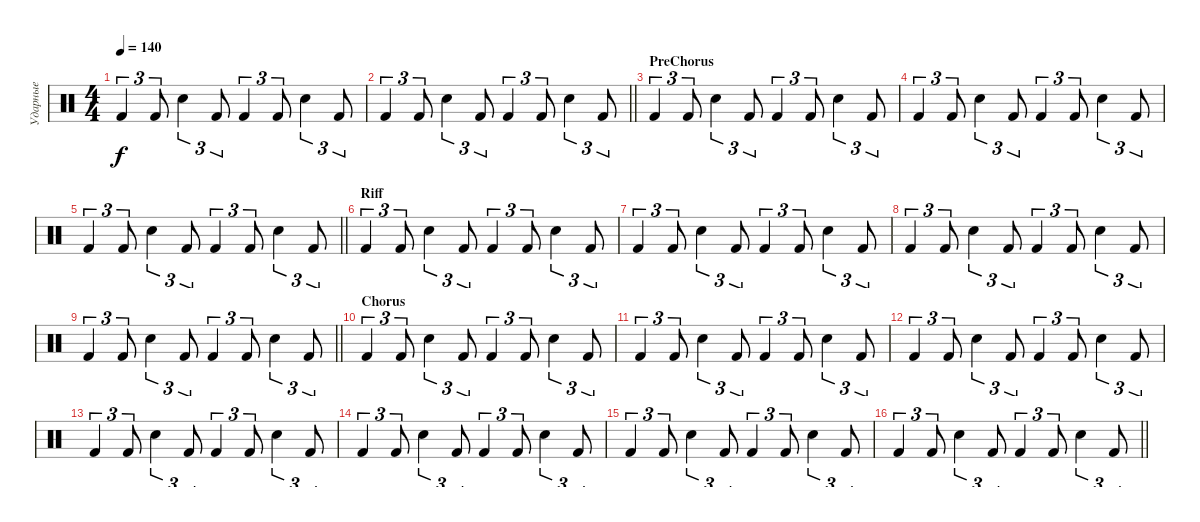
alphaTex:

\track ("Ударные" "Ударные") {instrument percussion}
\staff {score}
\articulation defaults
\ts (4 4)
\tempo 140
\clef neutral
\ks c "Kick (hit) 2".4{tu (3 2) dy f} "Kick (hit) 2".8{tu (3 2)} "Snare (hit) 2".4{tu (3 2)} "Kick (hit) 2".8{tu (3 2)} "Kick (hit) 2".4{tu (3 2)} "Kick (hit) 2".8{tu (3 2)} "Snare (hit) 2".4{tu (3 2)} "Kick (hit) 2".8{tu (3 2)}
|
\barLineRight lightlight "Kick (hit) 2".4{tu (3 2)} "Kick (hit) 2".8{tu (3 2)} "Snare (hit) 2".4{tu (3 2)} "Kick (hit) 2".8{tu (3 2)} "Kick (hit) 2".4{tu (3 2)} "Kick (hit) 2".8{tu (3 2)} "Snare (hit) 2".4{tu (3 2)} "Kick (hit) 2".8{tu (3 2)}
|
\section ("" "PreChorus")
"Kick (hit) 2".4{tu (3 2)} "Kick (hit) 2".8{tu (3 2)} "Snare (hit) 2".4{tu (3 2)} "Kick (hit) 2".8{tu (3 2)} "Kick (hit) 2".4{tu (3 2)} "Kick (hit) 2".8{tu (3 2)} "Snare (hit) 2".4{tu (3 2)} "Kick (hit) 2".8{tu (3 2)} |
"Kick (hit) 2".4{tu (3 2)} "Kick (hit) 2".8{tu (3 2)} "Snare (hit) 2".4{tu (3 2)} "Kick (hit) 2".8{tu (3 2)} "Kick (hit) 2".4{tu (3 2)} "Kick (hit) 2".8{tu (3 2)} "Snare (hit) 2".4{tu (3 2)} "Kick (hit) 2".8{tu (3 2)} |
\barLineRight lightlight "Kick (hit) 2".4{tu (3 2)} "Kick (hit) 2".8{tu (3 2)} "Snare (hit) 2".4{tu (3 2)} "Kick (hit) 2".8{tu (3 2)} "Kick (hit) 2".4{tu (3 2)} "Kick (hit) 2".8{tu (3 2)} "Snare (hit) 2".4{tu (3 2)} "Kick (hit) 2".8{tu (3 2)}
|
\section ("" "Riff")
"Kick (hit) 2".4{tu (3 2)} "Kick (hit) 2".8{tu (3 2)} "Snare (hit) 2".4{tu (3 2)} "Kick (hit) 2".8{tu (3 2)} "Kick (hit) 2".4{tu (3 2)} "Kick (hit) 2".8{tu (3 2)} "Snare (hit) 2".4{tu (3 2)} "Kick (hit) 2".8{tu (3 2)} |
"Kick (hit) 2".4{tu (3 2)} "Kick (hit) 2".8{tu (3 2)} "Snare (hit) 2".4{tu (3 2)} "Kick (hit) 2".8{tu (3 2)} "Kick (hit) 2".4{tu (3 2)} "Kick (hit) 2".8{tu (3 2)} "Snare (hit) 2".4{tu (3 2)} "Kick (hit) 2".8{tu (3 2)} |
"Kick (hit) 2".4{tu (3 2)} "Kick (hit) 2".8{tu (3 2)} "Snare (hit) 2".4{tu (3 2)} "Kick (hit) 2".8{tu (3 2)} "Kick (hit) 2".4{tu (3 2)} "Kick (hit) 2".8{tu (3 2)} "Snare (hit) 2".4{tu (3 2)} "Kick (hit) 2".8{tu (3 2)} |
\barLineRight lightlight "Kick (hit) 2".4{tu (3 2)} "Kick (hit) 2".8{tu (3 2)} "Snare (hit) 2".4{tu (3 2)} "Kick (hit) 2".8{tu (3 2)} "Kick (hit) 2".4{tu (3 2)} "Kick (hit) 2".8{tu (3 2)} "Snare (hit) 2".4{tu (3 2)} "Kick (hit) 2".8{tu (3 2)}
|
\section ("" "Chorus")
"Kick (hit) 2".4{tu (3 2)} "Kick (hit) 2".8{tu (3 2)} "Snare (hit) 2".4{tu (3 2)} "Kick (hit) 2".8{tu (3 2)} "Kick (hit) 2".4{tu (3 2)} "Kick (hit) 2".8{tu (3 2)} "Snare (hit) 2".4{tu (3 2)} "Kick (hit) 2".8{tu (3 2)} |
"Kick (hit) 2".4{tu (3 2)} "Kick (hit) 2".8{tu (3 2)} "Snare (hit) 2".4{tu (3 2)} "Kick (hit) 2".8{tu (3 2)} "Kick (hit) 2".4{tu (3 2)} "Kick (hit) 2".8{tu (3 2)} "Snare (hit) 2".4{tu (3 2)} "Kick (hit) 2".8{tu (3 2)} |
"Kick (hit) 2".4{tu (3 2)} "Kick (hit) 2".8{tu (3 2)} "Snare (hit) 2".4{tu (3 2)} "Kick (hit) 2".8{tu (3 2)} "Kick (hit) 2".4{tu (3 2)} "Kick (hit) 2".8{tu (3 2)} "Snare (hit) 2".4{tu (3 2)} "Kick (hit) 2".8{tu (3 2)} |
"Kick (hit) 2".4{tu (3 2)} "Kick (hit) 2".8{tu (3 2)} "Snare (hit) 2".4{tu (3 2)} "Kick (hit) 2".8{tu (3 2)} "Kick (hit) 2".4{tu (3 2)} "Kick (hit) 2".8{tu (3 2)} "Snare (hit) 2".4{tu (3 2)} "Kick (hit) 2".8{tu (3 2)} |
"Kick (hit) 2".4{tu (3 2)} "Kick (hit) 2".8{tu (3 2)} "Snare (hit) 2".4{tu (3 2)} "Kick (hit) 2".8{tu (3 2)} "Kick (hit) 2".4{tu (3 2)} "Kick (hit) 2".8{tu (3 2)} "Snare (hit) 2".4{tu (3 2)} "Kick (hit) 2".8{tu (3 2)} |
"Kick (hit) 2".4{tu (3 2)} "Kick (hit) 2".8{tu (3 2)} "Snare (hit) 2".4{tu (3 2)} "Kick (hit) 2".8{tu (3 2)} "Kick (hit) 2".4{tu (3 2)} "Kick (hit) 2".8{tu (3 2)} "Snare (hit) 2".4{tu (3 2)} "Kick (hit) 2".8{tu (3 2)} |
\barLineRight lightlight "Kick (hit) 2".4{tu (3 2)} "Kick (hit) 2".8{tu (3 2)} "Snare (hit) 2".4{tu (3 2)} "Kick (hit) 2".8{tu (3 2)} "Kick (hit) 2".4{tu (3 2)} "Kick (hit) 2".8{tu (3 2)} "Snare (hit) 2".4{tu (3 2)} "Kick (hit) 2".8{tu (3 2)}
